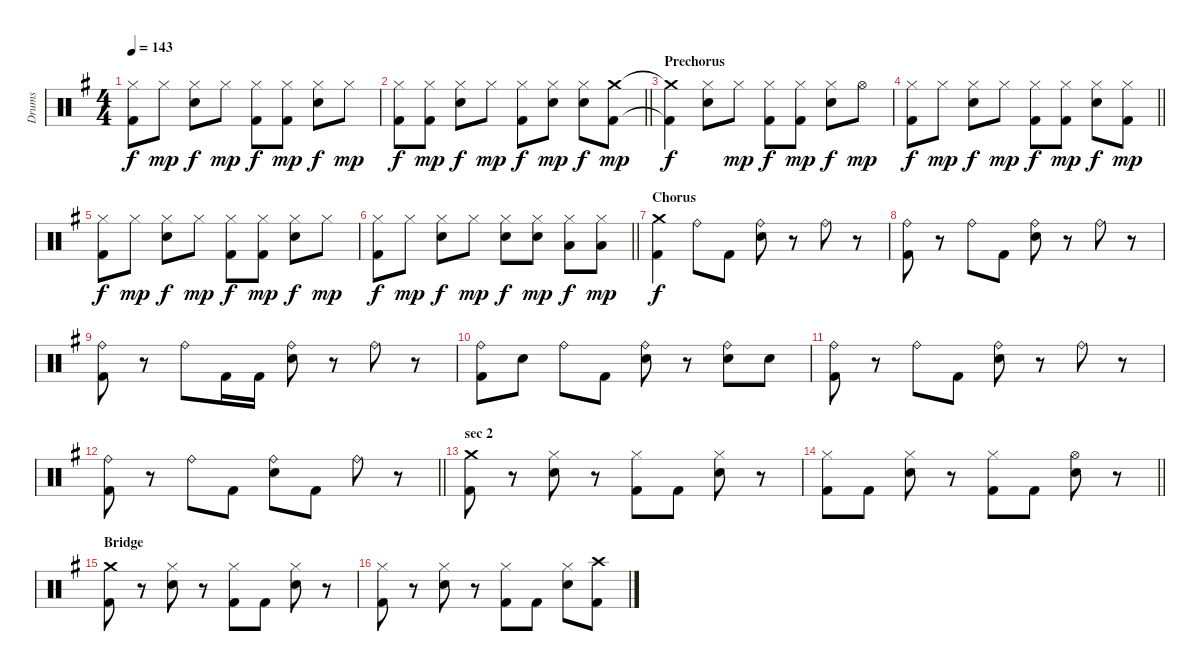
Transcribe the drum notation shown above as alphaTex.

\track ("Drums" "Drums") {instrument percussion}
\staff {score}
\articulation defaults
\ts (4 4)
\tempo 143
\clef neutral
\ks g
("Hi-Hat (closed)" "Kick (hit) 2").8{dy f} "Hi-Hat (closed)".8{dy mp} ("Hi-Hat (closed)" "Electric Snare (hit)").8{dy f} "Hi-Hat (closed)".8{dy mp} ("Hi-Hat (closed)" "Kick (hit) 2").8{dy f} ("Hi-Hat (closed)" "Kick (hit) 2").8{dy mp} ("Hi-Hat (closed)" "Electric Snare (hit)").8{dy f} "Hi-Hat (closed)".8{dy mp} |
\barLineRight lightlight
("Hi-Hat (closed)" "Kick (hit) 2").8{dy f} ("Hi-Hat (closed)" "Kick (hit) 2").8{dy mp} ("Hi-Hat (closed)" "Electric Snare (hit)").8{dy f} "Hi-Hat (closed)".8{dy mp} ("Hi-Hat (closed)" "Kick (hit) 2").8{dy f} ("Hi-Hat (closed)" "Electric Snare (hit)").8{dy mp} ("Hi-Hat (closed)" "Electric Snare (hit)").8{dy f} ("Crash medium (hit)" "Kick (hit) 2").8{dy mp} |
\section ("" "Prechorus")
("Crash medium (hit)"{t} "Kick (hit) 2"{t}).4{dy f} ("Hi-Hat (closed)" "Electric Snare (hit)").8 "Hi-Hat (closed)".8{dy mp} ("Hi-Hat (closed)" "Kick (hit) 2").8{dy f} ("Hi-Hat (closed)" "Kick (hit) 2").8{dy mp} ("Hi-Hat (closed)" "Electric Snare (hit)").8{dy f} "Hi-Hat (open)".8{dy mp} |
\barLineRight lightlight
("Hi-Hat (closed)" "Kick (hit) 2").8{dy f} "Hi-Hat (closed)".8{dy mp} ("Hi-Hat (closed)" "Electric Snare (hit)").8{dy f} "Hi-Hat (closed)".8{dy mp} ("Hi-Hat (closed)" "Kick (hit) 2").8{dy f} ("Hi-Hat (closed)" "Kick (hit) 2").8{dy mp} ("Hi-Hat (closed)" "Electric Snare (hit)").8{dy f} ("Hi-Hat (closed)" "Kick (hit) 2").8{dy mp} |
("Hi-Hat (closed)" "Kick (hit) 2").8{dy f} "Hi-Hat (closed)".8{dy mp} ("Hi-Hat (closed)" "Electric Snare (hit)").8{dy f} "Hi-Hat (closed)".8{dy mp} ("Hi-Hat (closed)" "Kick (hit) 2").8{dy f} ("Hi-Hat (closed)" "Kick (hit) 2").8{dy mp} ("Hi-Hat (closed)" "Electric Snare (hit)").8{dy f} "Hi-Hat (closed)".8{dy mp} |
\barLineRight lightlight
("Hi-Hat (closed)" "Kick (hit) 2").8{dy f} "Hi-Hat (closed)".8{dy mp} ("Hi-Hat (closed)" "Electric Snare (hit)").8{dy f} "Hi-Hat (closed)".8{dy mp} ("Hi-Hat (closed)" "Electric Snare (hit)").8{dy f} ("Hi-Hat (closed)" "Electric Snare (hit)").8{dy mp} ("Hi-Hat (closed)" "Low Tom (hit)").8{dy f} ("Hi-Hat (closed)" "Low Tom (hit)").8{dy mp} |
\section ("" "Chorus")
("Crash medium (hit)" "Kick (hit) 2").4{dy f} "Ride (bell)".8 "Kick (hit) 2".8 ("Ride (bell)" "Electric Snare (hit)").8 r.8 "Ride (bell)".8 r.8 |
("Ride (bell)" "Kick (hit) 2").8 r.8 "Ride (bell)".8 "Kick (hit) 2".8 ("Ride (bell)" "Electric Snare (hit)").8 r.8 "Ride (bell)".8 r.8 |
("Ride (bell)" "Kick (hit) 2").8 r.8 "Ride (bell)".8 "Kick (hit) 2".16 "Kick (hit) 2".16 ("Ride (bell)" "Electric Snare (hit)").8 r.8 "Ride (bell)".8 r.8 |
("Ride (bell)" "Kick (hit) 2").8 "Electric Snare (hit)".8 "Ride (bell)".8 "Kick (hit) 2".8 ("Ride (bell)" "Electric Snare (hit)").8 r.8 ("Ride (bell)" "Electric Snare (hit)").8 "Electric Snare (hit)".8 |
("Ride (bell)" "Kick (hit) 2").8 r.8 "Ride (bell)".8 "Kick (hit) 2".8 ("Ride (bell)" "Electric Snare (hit)").8 r.8 "Ride (bell)".8 r.8 |
\barLineRight lightlight
("Ride (bell)" "Kick (hit) 2").8 r.8 "Ride (bell)".8 "Kick (hit) 2".8 ("Ride (bell)" "Electric Snare (hit)").8 "Kick (hit) 2".8 "Ride (bell)".8 r.8 |
\section ("" "sec 2")
("Crash medium (hit)" "Kick (hit) 2").8 r.8 ("Hi-Hat (closed)" "Electric Snare (hit)").8 r.8 ("Hi-Hat (closed)" "Kick (hit) 2").8 "Kick (hit) 2".8 ("Hi-Hat (closed)" "Electric Snare (hit)").8 r.8 |
\barLineRight lightlight
("Hi-Hat (closed)" "Kick (hit) 2").8 "Kick (hit) 2".8 ("Hi-Hat (closed)" "Electric Snare (hit)").8 r.8 ("Hi-Hat (closed)" "Kick (hit) 2").8 "Kick (hit) 2".8 ("Hi-Hat (open)" "Electric Snare (hit)").8 r.8 |
\section ("" "Bridge")
("Crash medium (hit)" "Kick (hit) 2").8 r.8 ("Hi-Hat (closed)" "Electric Snare (hit)").8 r.8 ("Hi-Hat (closed)" "Kick (hit) 2").8 "Kick (hit) 2".8 ("Hi-Hat (closed)" "Electric Snare (hit)").8 r.8 |
("Hi-Hat (closed)" "Kick (hit) 2").8 r.8 ("Hi-Hat (closed)" "Electric Snare (hit)").8 r.8 ("Hi-Hat (closed)" "Kick (hit) 2").8 "Kick (hit) 2".8 ("Hi-Hat (closed)" "Electric Snare (hit)").8 ("Crash high (hit)" "Kick (hit) 2").8
